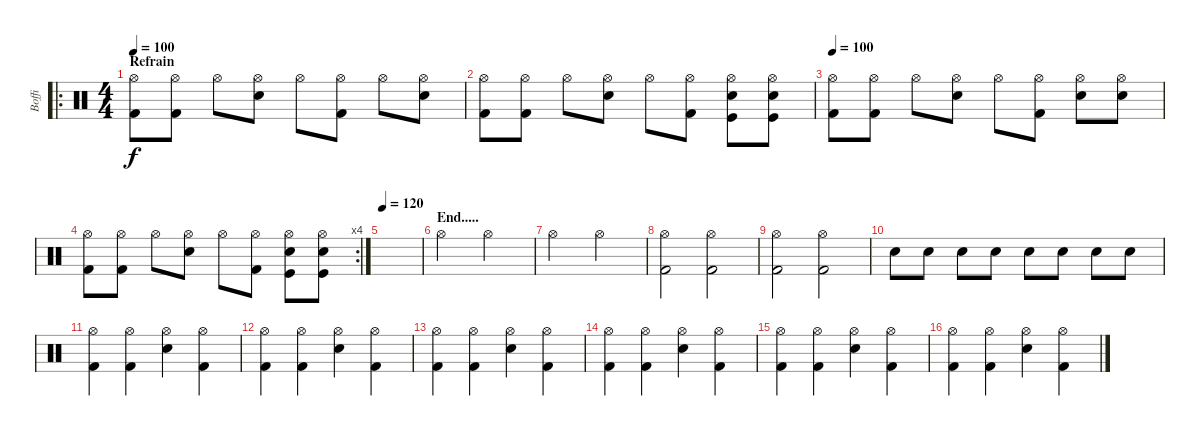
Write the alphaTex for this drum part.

\track ("Boffi" "Boffi") {instrument percussion}
\staff {score}
\articulation defaults
\ro
\ts (4 4)
\section ("" "Refrain")
\tempo 90
\tempo 100
\clef neutral
\ks c
("Hi-Hat (open)" "Kick (hit) 2").8{dy f} ("Hi-Hat (open)" "Kick (hit) 2").8 "Hi-Hat (open)".8 ("Hi-Hat (open)" "Electric Snare (hit)").8 "Hi-Hat (open)".8 ("Hi-Hat (open)" "Kick (hit) 2").8 "Hi-Hat (open)".8 ("Hi-Hat (open)" "Electric Snare (hit)").8 |
("Hi-Hat (open)" "Kick (hit) 2").8 ("Hi-Hat (open)" "Kick (hit) 2").8 "Hi-Hat (open)".8 ("Hi-Hat (open)" "Electric Snare (hit)").8 "Hi-Hat (open)".8 ("Hi-Hat (open)" "Kick (hit) 2").8 ("Hi-Hat (open)" "Electric Snare (hit)" "Kick (hit)").8 ("Hi-Hat (open)" "Electric Snare (hit)" "Kick (hit)").8 |
\tempo 100
("Hi-Hat (open)" "Kick (hit) 2").8 ("Hi-Hat (open)" "Kick (hit) 2").8 "Hi-Hat (open)".8 ("Hi-Hat (open)" "Electric Snare (hit)").8 "Hi-Hat (open)".8 ("Hi-Hat (open)" "Kick (hit) 2").8 ("Hi-Hat (open)" "Electric Snare (hit)").8 ("Hi-Hat (open)" "Electric Snare (hit)").8 |
\rc 4
("Hi-Hat (open)" "Kick (hit) 2").8 ("Hi-Hat (open)" "Kick (hit) 2").8 "Hi-Hat (open)".8 ("Hi-Hat (open)" "Electric Snare (hit)").8 "Hi-Hat (open)".8 ("Hi-Hat (open)" "Kick (hit) 2").8 ("Hi-Hat (open)" "Snare (hit) 2" "Kick (hit)").8 ("Hi-Hat (open)" "Snare (hit) 2" "Kick (hit)").8 |
\tempo 120
|
\section ("" "End.....")
"Hi-Hat (open)".2 "Hi-Hat (open)".2 |
"Hi-Hat (open)".2 "Hi-Hat (open)".2 |
("Hi-Hat (open)" "Kick (hit) 2").2 ("Hi-Hat (open)" "Kick (hit) 2").2 |
("Hi-Hat (open)" "Kick (hit) 2").2 ("Hi-Hat (open)" "Kick (hit) 2").2 |
"Snare (hit) 2".8 "Snare (hit) 2".8 "Snare (hit) 2".8 "Snare (hit) 2".8 "Snare (hit) 2".8 "Snare (hit) 2".8 "Snare (hit) 2".8 "Snare (hit) 2".8 |
("Hi-Hat (open)" "Kick (hit) 2").4 ("Hi-Hat (open)" "Kick (hit) 2").4 ("Hi-Hat (open)" "Snare (hit) 2").4 ("Hi-Hat (open)" "Kick (hit) 2").4 |
("Hi-Hat (open)" "Kick (hit) 2").4 ("Hi-Hat (open)" "Kick (hit) 2").4 ("Hi-Hat (open)" "Snare (hit) 2").4 ("Hi-Hat (open)" "Kick (hit) 2").4 |
("Hi-Hat (open)" "Kick (hit) 2").4 ("Hi-Hat (open)" "Kick (hit) 2").4 ("Hi-Hat (open)" "Snare (hit) 2").4 ("Hi-Hat (open)" "Kick (hit) 2").4 |
("Hi-Hat (open)" "Kick (hit) 2").4 ("Hi-Hat (open)" "Kick (hit) 2").4 ("Hi-Hat (open)" "Snare (hit) 2").4 ("Hi-Hat (open)" "Kick (hit) 2").4 |
("Hi-Hat (open)" "Kick (hit) 2").4 ("Hi-Hat (open)" "Kick (hit) 2").4 ("Hi-Hat (open)" "Snare (hit) 2").4 ("Hi-Hat (open)" "Kick (hit) 2").4 |
("Hi-Hat (open)" "Kick (hit) 2").4 ("Hi-Hat (open)" "Kick (hit) 2").4 ("Hi-Hat (open)" "Snare (hit) 2").4 ("Hi-Hat (open)" "Kick (hit) 2").4
